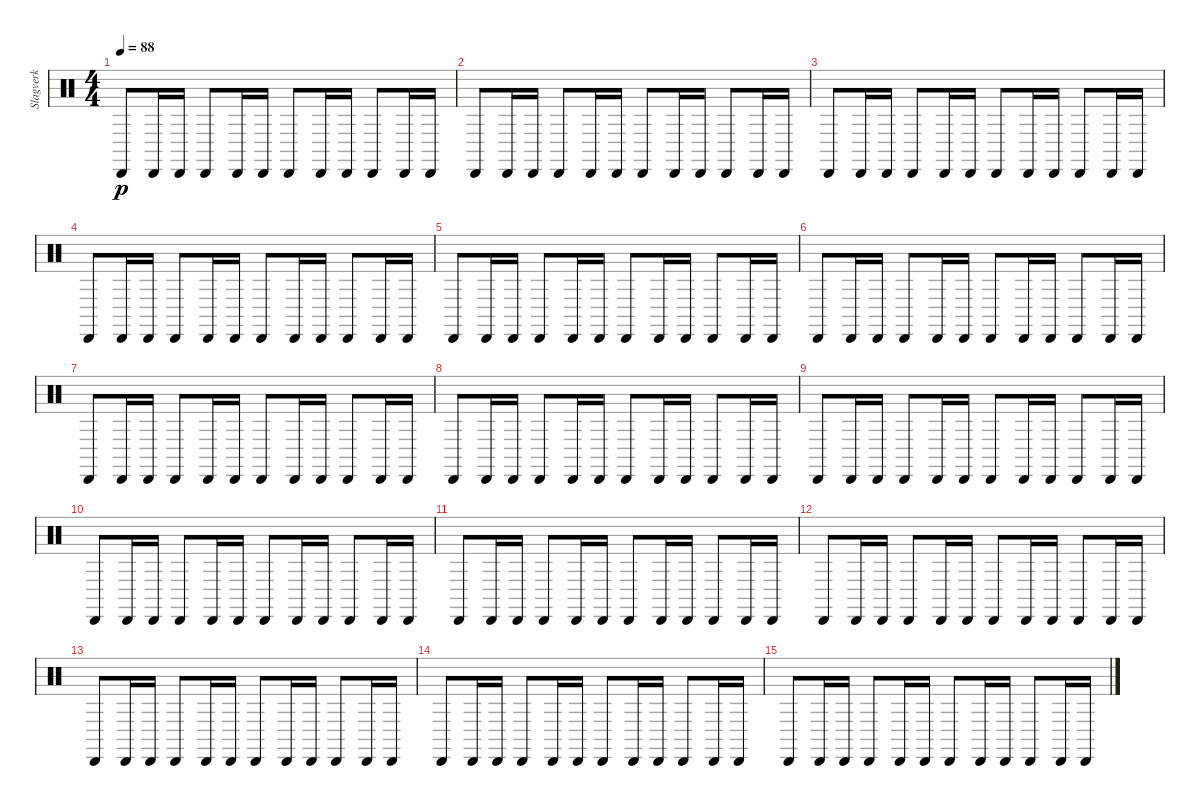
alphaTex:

\track ("Slagverk" "Slagverk") {instrument percussion}
\staff {score}
\articulation defaults
\ts (4 4)
\tempo 88
\clef neutral
\ks c "Cabasa (hit)".8{dy p} "Cabasa (hit)".16 "Cabasa (hit)".16 "Cabasa (hit)".8 "Cabasa (hit)".16 "Cabasa (hit)".16 "Cabasa (hit)".8 "Cabasa (hit)".16 "Cabasa (hit)".16 "Cabasa (hit)".8 "Cabasa (hit)".16 "Cabasa (hit)".16
|
"Cabasa (hit)".8 "Cabasa (hit)".16 "Cabasa (hit)".16 "Cabasa (hit)".8 "Cabasa (hit)".16 "Cabasa (hit)".16 "Cabasa (hit)".8 "Cabasa (hit)".16 "Cabasa (hit)".16 "Cabasa (hit)".8 "Cabasa (hit)".16 "Cabasa (hit)".16 |
"Cabasa (hit)".8 "Cabasa (hit)".16 "Cabasa (hit)".16 "Cabasa (hit)".8 "Cabasa (hit)".16 "Cabasa (hit)".16 "Cabasa (hit)".8 "Cabasa (hit)".16 "Cabasa (hit)".16 "Cabasa (hit)".8 "Cabasa (hit)".16 "Cabasa (hit)".16 |
"Cabasa (hit)".8 "Cabasa (hit)".16 "Cabasa (hit)".16 "Cabasa (hit)".8 "Cabasa (hit)".16 "Cabasa (hit)".16 "Cabasa (hit)".8 "Cabasa (hit)".16 "Cabasa (hit)".16 "Cabasa (hit)".8 "Cabasa (hit)".16 "Cabasa (hit)".16 |
"Cabasa (hit)".8 "Cabasa (hit)".16 "Cabasa (hit)".16 "Cabasa (hit)".8 "Cabasa (hit)".16 "Cabasa (hit)".16 "Cabasa (hit)".8 "Cabasa (hit)".16 "Cabasa (hit)".16 "Cabasa (hit)".8 "Cabasa (hit)".16 "Cabasa (hit)".16 |
"Cabasa (hit)".8 "Cabasa (hit)".16 "Cabasa (hit)".16 "Cabasa (hit)".8 "Cabasa (hit)".16 "Cabasa (hit)".16 "Cabasa (hit)".8 "Cabasa (hit)".16 "Cabasa (hit)".16 "Cabasa (hit)".8 "Cabasa (hit)".16 "Cabasa (hit)".16 |
"Cabasa (hit)".8 "Cabasa (hit)".16 "Cabasa (hit)".16 "Cabasa (hit)".8 "Cabasa (hit)".16 "Cabasa (hit)".16 "Cabasa (hit)".8 "Cabasa (hit)".16 "Cabasa (hit)".16 "Cabasa (hit)".8 "Cabasa (hit)".16 "Cabasa (hit)".16 |
"Cabasa (hit)".8 "Cabasa (hit)".16 "Cabasa (hit)".16 "Cabasa (hit)".8 "Cabasa (hit)".16 "Cabasa (hit)".16 "Cabasa (hit)".8 "Cabasa (hit)".16 "Cabasa (hit)".16 "Cabasa (hit)".8 "Cabasa (hit)".16 "Cabasa (hit)".16 |
"Cabasa (hit)".8 "Cabasa (hit)".16 "Cabasa (hit)".16 "Cabasa (hit)".8 "Cabasa (hit)".16 "Cabasa (hit)".16 "Cabasa (hit)".8 "Cabasa (hit)".16 "Cabasa (hit)".16 "Cabasa (hit)".8 "Cabasa (hit)".16 "Cabasa (hit)".16 |
"Cabasa (hit)".8 "Cabasa (hit)".16 "Cabasa (hit)".16 "Cabasa (hit)".8 "Cabasa (hit)".16 "Cabasa (hit)".16 "Cabasa (hit)".8 "Cabasa (hit)".16 "Cabasa (hit)".16 "Cabasa (hit)".8 "Cabasa (hit)".16 "Cabasa (hit)".16 |
"Cabasa (hit)".8 "Cabasa (hit)".16 "Cabasa (hit)".16 "Cabasa (hit)".8 "Cabasa (hit)".16 "Cabasa (hit)".16 "Cabasa (hit)".8 "Cabasa (hit)".16 "Cabasa (hit)".16 "Cabasa (hit)".8 "Cabasa (hit)".16 "Cabasa (hit)".16 |
"Cabasa (hit)".8 "Cabasa (hit)".16 "Cabasa (hit)".16 "Cabasa (hit)".8 "Cabasa (hit)".16 "Cabasa (hit)".16 "Cabasa (hit)".8 "Cabasa (hit)".16 "Cabasa (hit)".16 "Cabasa (hit)".8 "Cabasa (hit)".16 "Cabasa (hit)".16 |
"Cabasa (hit)".8 "Cabasa (hit)".16 "Cabasa (hit)".16 "Cabasa (hit)".8 "Cabasa (hit)".16 "Cabasa (hit)".16 "Cabasa (hit)".8 "Cabasa (hit)".16 "Cabasa (hit)".16 "Cabasa (hit)".8 "Cabasa (hit)".16 "Cabasa (hit)".16 |
"Cabasa (hit)".8 "Cabasa (hit)".16 "Cabasa (hit)".16 "Cabasa (hit)".8 "Cabasa (hit)".16 "Cabasa (hit)".16 "Cabasa (hit)".8 "Cabasa (hit)".16 "Cabasa (hit)".16 "Cabasa (hit)".8 "Cabasa (hit)".16 "Cabasa (hit)".16 |
"Cabasa (hit)".8 "Cabasa (hit)".16 "Cabasa (hit)".16 "Cabasa (hit)".8 "Cabasa (hit)".16 "Cabasa (hit)".16 "Cabasa (hit)".8 "Cabasa (hit)".16 "Cabasa (hit)".16 "Cabasa (hit)".8 "Cabasa (hit)".16 "Cabasa (hit)".16
